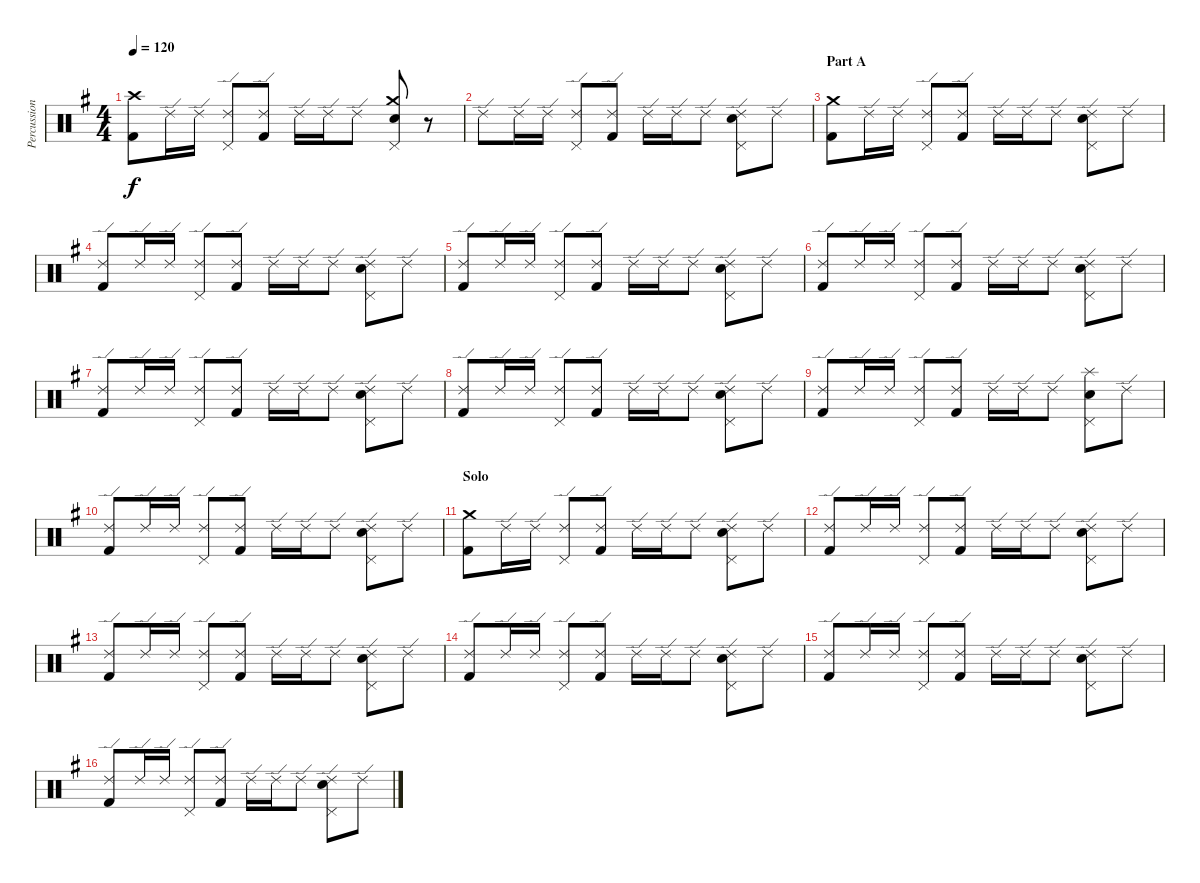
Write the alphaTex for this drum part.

\track ("Percussion" "Percussion") {instrument percussion}
\staff {score}
\articulation defaults
\ts (4 4)
\tempo 120
\clef neutral
\ks eminor
("Crash high (hit)" "Kick (hit) 2").8{dy f} "Ride (edge) 2".16 "Ride (edge) 2".16 ("Ride (edge) 2" "Pedal Hi-Hat (hit)").8 ("Ride (edge) 2" "Kick (hit) 2").8 "Ride (edge) 2".16 "Ride (edge) 2".16 "Ride (edge) 2".8 ("Crash medium (hit)" "Pedal Hi-Hat (hit)" "Snare (hit) 2").8 r.8 |
"Ride (edge) 2".8 "Ride (edge) 2".16 "Ride (edge) 2".16 ("Ride (edge) 2" "Pedal Hi-Hat (hit)").8 ("Ride (edge) 2" "Kick (hit) 2").8 "Ride (edge) 2".16 "Ride (edge) 2".16 "Ride (edge) 2".8 ("Ride (edge) 2" "Pedal Hi-Hat (hit)" "Snare (hit) 2").8 "Ride (edge) 2".8 |
\section ("" "Part A")
("Crash medium (hit)" "Kick (hit) 2").8 "Ride (edge) 2".16 "Ride (edge) 2".16 ("Ride (edge) 2" "Pedal Hi-Hat (hit)").8 ("Ride (edge) 2" "Kick (hit) 2").8 "Ride (edge) 2".16 "Ride (edge) 2".16 "Ride (edge) 2".8 ("Ride (edge) 2" "Pedal Hi-Hat (hit)" "Snare (hit) 2").8 "Ride (edge) 2".8 |
("Ride (edge) 2" "Kick (hit) 2").8 "Ride (edge) 2".16 "Ride (edge) 2".16 ("Ride (edge) 2" "Pedal Hi-Hat (hit)").8 ("Ride (edge) 2" "Kick (hit) 2").8 "Ride (edge) 2".16 "Ride (edge) 2".16 "Ride (edge) 2".8 ("Ride (edge) 2" "Pedal Hi-Hat (hit)" "Snare (hit) 2").8 "Ride (edge) 2".8 |
("Ride (edge) 2" "Kick (hit) 2").8 "Ride (edge) 2".16 "Ride (edge) 2".16 ("Ride (edge) 2" "Pedal Hi-Hat (hit)").8 ("Ride (edge) 2" "Kick (hit) 2").8 "Ride (edge) 2".16 "Ride (edge) 2".16 "Ride (edge) 2".8 ("Ride (edge) 2" "Pedal Hi-Hat (hit)" "Snare (hit) 2").8 "Ride (edge) 2".8 |
("Ride (edge) 2" "Kick (hit) 2").8 "Ride (edge) 2".16 "Ride (edge) 2".16 ("Ride (edge) 2" "Pedal Hi-Hat (hit)").8 ("Ride (edge) 2" "Kick (hit) 2").8 "Ride (edge) 2".16 "Ride (edge) 2".16 "Ride (edge) 2".8 ("Ride (edge) 2" "Pedal Hi-Hat (hit)" "Snare (hit) 2").8 "Ride (edge) 2".8 |
("Ride (edge) 2" "Kick (hit) 2").8 "Ride (edge) 2".16 "Ride (edge) 2".16 ("Ride (edge) 2" "Pedal Hi-Hat (hit)").8 ("Ride (edge) 2" "Kick (hit) 2").8 "Ride (edge) 2".16 "Ride (edge) 2".16 "Ride (edge) 2".8 ("Ride (edge) 2" "Pedal Hi-Hat (hit)" "Snare (hit) 2").8 "Ride (edge) 2".8 |
("Ride (edge) 2" "Kick (hit) 2").8 "Ride (edge) 2".16 "Ride (edge) 2".16 ("Ride (edge) 2" "Pedal Hi-Hat (hit)").8 ("Ride (edge) 2" "Kick (hit) 2").8 "Ride (edge) 2".16 "Ride (edge) 2".16 "Ride (edge) 2".8 ("Ride (edge) 2" "Pedal Hi-Hat (hit)" "Snare (hit) 2").8 "Ride (edge) 2".8 |
("Ride (edge) 2" "Kick (hit) 2").8 "Ride (edge) 2".16 "Ride (edge) 2".16 ("Ride (edge) 2" "Pedal Hi-Hat (hit)").8 ("Ride (edge) 2" "Kick (hit) 2").8 "Ride (edge) 2".16 "Ride (edge) 2".16 "Ride (edge) 2".8 ("Splash (hit)" "Pedal Hi-Hat (hit)" "Snare (hit) 2").8 "Ride (edge) 2".8 |
("Ride (edge) 2" "Kick (hit) 2").8 "Ride (edge) 2".16 "Ride (edge) 2".16 ("Ride (edge) 2" "Pedal Hi-Hat (hit)").8 ("Ride (edge) 2" "Kick (hit) 2").8 "Ride (edge) 2".16 "Ride (edge) 2".16 "Ride (edge) 2".8 ("Ride (edge) 2" "Pedal Hi-Hat (hit)" "Snare (hit) 2").8 "Ride (edge) 2".8 |
\section ("" "Solo")
("Crash medium (hit)" "Kick (hit) 2").8 "Ride (edge) 2".16 "Ride (edge) 2".16 ("Ride (edge) 2" "Pedal Hi-Hat (hit)").8 ("Ride (edge) 2" "Kick (hit) 2").8 "Ride (edge) 2".16 "Ride (edge) 2".16 "Ride (edge) 2".8 ("Ride (edge) 2" "Pedal Hi-Hat (hit)" "Snare (hit) 2").8 "Ride (edge) 2".8 |
("Ride (edge) 2" "Kick (hit) 2").8 "Ride (edge) 2".16 "Ride (edge) 2".16 ("Ride (edge) 2" "Pedal Hi-Hat (hit)").8 ("Ride (edge) 2" "Kick (hit) 2").8 "Ride (edge) 2".16 "Ride (edge) 2".16 "Ride (edge) 2".8 ("Ride (edge) 2" "Pedal Hi-Hat (hit)" "Snare (hit) 2").8 "Ride (edge) 2".8 |
("Ride (edge) 2" "Kick (hit) 2").8 "Ride (edge) 2".16 "Ride (edge) 2".16 ("Ride (edge) 2" "Pedal Hi-Hat (hit)").8 ("Ride (edge) 2" "Kick (hit) 2").8 "Ride (edge) 2".16 "Ride (edge) 2".16 "Ride (edge) 2".8 ("Ride (edge) 2" "Pedal Hi-Hat (hit)" "Snare (hit) 2").8 "Ride (edge) 2".8 |
("Ride (edge) 2" "Kick (hit) 2").8 "Ride (edge) 2".16 "Ride (edge) 2".16 ("Ride (edge) 2" "Pedal Hi-Hat (hit)").8 ("Ride (edge) 2" "Kick (hit) 2").8 "Ride (edge) 2".16 "Ride (edge) 2".16 "Ride (edge) 2".8 ("Ride (edge) 2" "Pedal Hi-Hat (hit)" "Snare (hit) 2").8 "Ride (edge) 2".8 |
("Ride (edge) 2" "Kick (hit) 2").8 "Ride (edge) 2".16 "Ride (edge) 2".16 ("Ride (edge) 2" "Pedal Hi-Hat (hit)").8 ("Ride (edge) 2" "Kick (hit) 2").8 "Ride (edge) 2".16 "Ride (edge) 2".16 "Ride (edge) 2".8 ("Ride (edge) 2" "Pedal Hi-Hat (hit)" "Snare (hit) 2").8 "Ride (edge) 2".8 |
("Ride (edge) 2" "Kick (hit) 2").8 "Ride (edge) 2".16 "Ride (edge) 2".16 ("Ride (edge) 2" "Pedal Hi-Hat (hit)").8 ("Ride (edge) 2" "Kick (hit) 2").8 "Ride (edge) 2".16 "Ride (edge) 2".16 "Ride (edge) 2".8 ("Ride (edge) 2" "Pedal Hi-Hat (hit)" "Snare (hit) 2").8 "Ride (edge) 2".8
